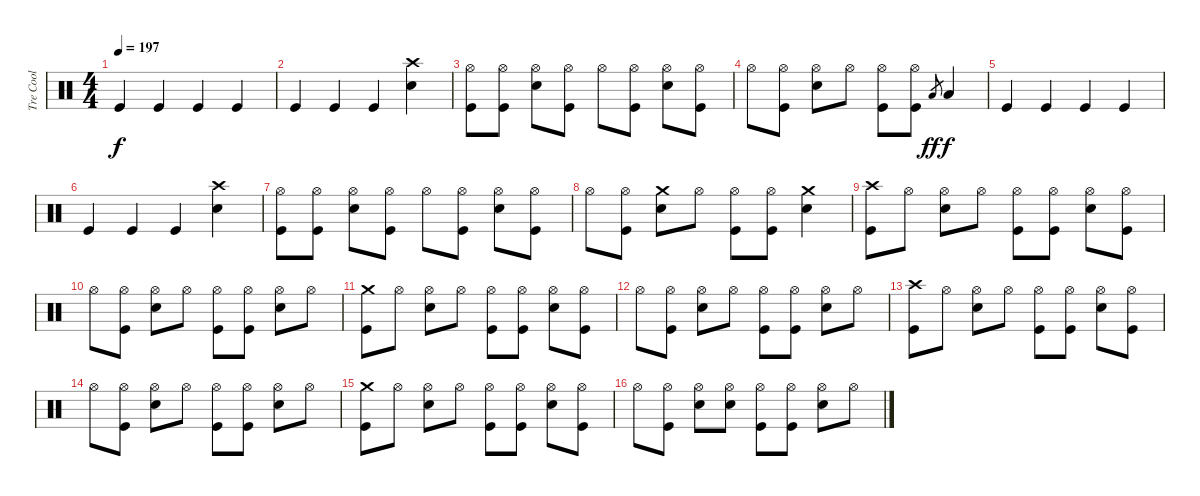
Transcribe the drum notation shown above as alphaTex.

\track ("Tre Cool" "Tre Cool") {instrument percussion}
\staff {score}
\articulation defaults
\ts (4 4)
\tempo 197
\clef neutral
\ks c "Kick (hit)".4{dy f} "Kick (hit)".4 "Kick (hit)".4 "Kick (hit)".4
|
"Kick (hit)".4 "Kick (hit)".4 "Kick (hit)".4 ("Crash high (hit)" "Electric Snare (hit)").4 |
("Hi-Hat (open)" "Kick (hit)").8 ("Hi-Hat (open)" "Kick (hit)").8 ("Hi-Hat (open)" "Electric Snare (hit)").8 ("Hi-Hat (open)" "Kick (hit)").8 "Hi-Hat (open)".8 ("Hi-Hat (open)" "Kick (hit)").8 ("Hi-Hat (open)" "Electric Snare (hit)").8 ("Hi-Hat (open)" "Kick (hit)").8 |
"Hi-Hat (open)".8 ("Hi-Hat (open)" "Kick (hit)").8 ("Hi-Hat (open)" "Electric Snare (hit)").8 "Hi-Hat (open)".8 ("Hi-Hat (open)" "Kick (hit)").8 ("Hi-Hat (open)" "Kick (hit)").8 "Low Floor Tom (hit)".8{gr dy ff} "Low Floor Tom (hit)".4{dy f} |
"Kick (hit)".4 "Kick (hit)".4 "Kick (hit)".4 "Kick (hit)".4 |
"Kick (hit)".4 "Kick (hit)".4 "Kick (hit)".4 ("Crash high (hit)" "Electric Snare (hit)").4 |
("Hi-Hat (open)" "Kick (hit)").8 ("Hi-Hat (open)" "Kick (hit)").8 ("Hi-Hat (open)" "Electric Snare (hit)").8 ("Hi-Hat (open)" "Kick (hit)").8 "Hi-Hat (open)".8 ("Hi-Hat (open)" "Kick (hit)").8 ("Hi-Hat (open)" "Electric Snare (hit)").8 ("Hi-Hat (open)" "Kick (hit)").8 |
"Hi-Hat (open)".8 ("Hi-Hat (open)" "Kick (hit)").8 ("Crash medium (hit)" "Electric Snare (hit)").8 "Hi-Hat (open)".8 ("Hi-Hat (open)" "Kick (hit)").8 ("Hi-Hat (open)" "Kick (hit)").8 ("Crash medium (hit)" "Electric Snare (hit)").4 |
("Crash high (hit)" "Kick (hit)").8 "Hi-Hat (open)".8 ("Hi-Hat (open)" "Electric Snare (hit)").8 "Hi-Hat (open)".8 ("Hi-Hat (open)" "Kick (hit)").8 ("Hi-Hat (open)" "Kick (hit)").8 ("Hi-Hat (open)" "Electric Snare (hit)").8 ("Hi-Hat (open)" "Kick (hit)").8 |
"Hi-Hat (open)".8 ("Hi-Hat (open)" "Kick (hit)").8 ("Hi-Hat (open)" "Electric Snare (hit)").8 "Hi-Hat (open)".8 ("Hi-Hat (open)" "Kick (hit)").8 ("Hi-Hat (open)" "Kick (hit)").8 ("Hi-Hat (open)" "Electric Snare (hit)").8 "Hi-Hat (open)".8 |
("Crash medium (hit)" "Kick (hit)").8 "Hi-Hat (open)".8 ("Hi-Hat (open)" "Electric Snare (hit)").8 "Hi-Hat (open)".8 ("Hi-Hat (open)" "Kick (hit)").8 ("Hi-Hat (open)" "Kick (hit)").8 ("Hi-Hat (open)" "Electric Snare (hit)").8 ("Hi-Hat (open)" "Kick (hit)").8 |
"Hi-Hat (open)".8 ("Hi-Hat (open)" "Kick (hit)").8 ("Hi-Hat (open)" "Electric Snare (hit)").8 "Hi-Hat (open)".8 ("Hi-Hat (open)" "Kick (hit)").8 ("Hi-Hat (open)" "Kick (hit)").8 ("Hi-Hat (open)" "Electric Snare (hit)").8 "Hi-Hat (open)".8 |
("Crash high (hit)" "Kick (hit)").8 "Hi-Hat (open)".8 ("Hi-Hat (open)" "Electric Snare (hit)").8 "Hi-Hat (open)".8 ("Hi-Hat (open)" "Kick (hit)").8 ("Hi-Hat (open)" "Kick (hit)").8 ("Hi-Hat (open)" "Electric Snare (hit)").8 ("Hi-Hat (open)" "Kick (hit)").8 |
"Hi-Hat (open)".8 ("Hi-Hat (open)" "Kick (hit)").8 ("Hi-Hat (open)" "Electric Snare (hit)").8 "Hi-Hat (open)".8 ("Hi-Hat (open)" "Kick (hit)").8 ("Hi-Hat (open)" "Kick (hit)").8 ("Hi-Hat (open)" "Electric Snare (hit)").8 "Hi-Hat (open)".8 |
("Crash medium (hit)" "Kick (hit)").8 "Hi-Hat (open)".8 ("Hi-Hat (open)" "Electric Snare (hit)").8 "Hi-Hat (open)".8 ("Hi-Hat (open)" "Kick (hit)").8 ("Hi-Hat (open)" "Kick (hit)").8 ("Hi-Hat (open)" "Electric Snare (hit)").8 ("Hi-Hat (open)" "Kick (hit)").8 |
"Hi-Hat (open)".8 ("Hi-Hat (open)" "Kick (hit)").8 ("Hi-Hat (open)" "Electric Snare (hit)").8 ("Hi-Hat (open)" "Electric Snare (hit)").8 ("Hi-Hat (open)" "Kick (hit)").8 ("Hi-Hat (open)" "Kick (hit)").8 ("Hi-Hat (open)" "Electric Snare (hit)").8 "Hi-Hat (open)".8
